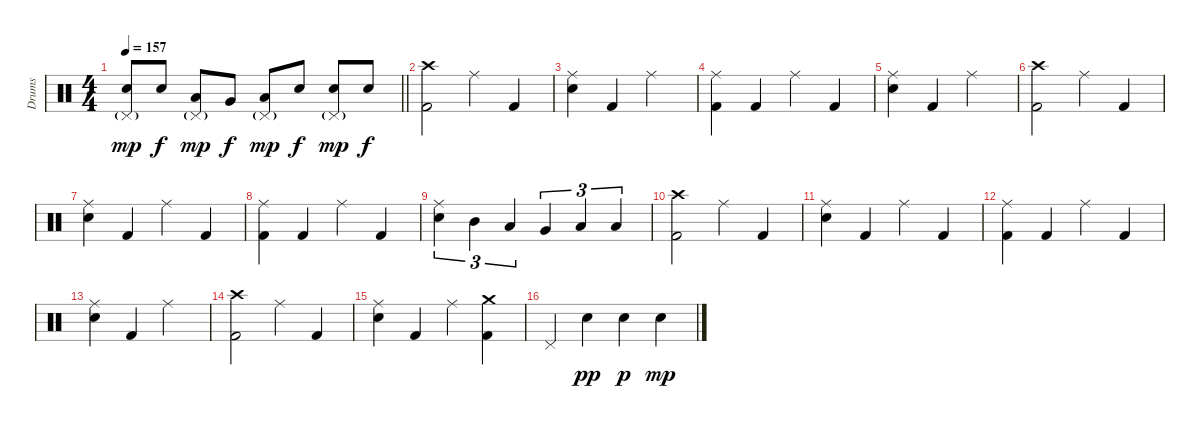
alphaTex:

\track ("Drums" "Drums") {instrument percussion}
\staff {score}
\articulation defaults
\ts (4 4)
\tempo 157
\clef neutral
\barLineRight lightlight
\ks c
("Pedal Hi-Hat (hit)"{g} "Electric Snare (hit)").8{dy mp} "Electric Snare (hit)".8{dy f} ("Pedal Hi-Hat (hit)"{g} "Low Tom (hit)").8{dy mp} "Very Low Tom (hit)".8{dy f} ("Pedal Hi-Hat (hit)"{g} "Low Floor Tom (hit)").8{dy mp} "Electric Snare (hit)".8{dy f} ("Pedal Hi-Hat (hit)"{g} "Electric Snare (hit)").8{dy mp} "Electric Snare (hit)".8{dy f} |
\section ("" "")
("Crash high (hit)" "Kick (hit) 2").2 "Ride (middle)".4 "Kick (hit) 2".4 |
("Ride (middle)" "Electric Snare (hit)").4 "Kick (hit) 2".4 "Ride (middle)".2 |
("Ride (middle)" "Kick (hit) 2").4 "Kick (hit) 2".4 "Ride (middle)".4 "Kick (hit) 2".4 |
("Ride (middle)" "Electric Snare (hit)").4 "Kick (hit) 2".4 "Ride (middle)".2 |
("Crash high (hit)" "Kick (hit) 2").2 "Ride (middle)".4 "Kick (hit) 2".4 |
("Ride (middle)" "Electric Snare (hit)").4 "Kick (hit) 2".4 "Ride (middle)".4 "Kick (hit) 2".4 |
("Ride (middle)" "Kick (hit) 2").4 "Kick (hit) 2".4 "Ride (middle)".4 "Kick (hit) 2".4 |
("Ride (middle)" "Electric Snare (hit)").4{tu (3 2)} "Mid Tom (hit)".4{tu (3 2)} "Low Tom (hit)".4{tu (3 2)} "Very Low Tom (hit)".4{tu (3 2)} "Low Floor Tom (hit)".4{tu (3 2)} "Low Floor Tom (hit)".4{tu (3 2)} |
("Crash high (hit)" "Kick (hit) 2").2 "Ride (middle)".4 "Kick (hit) 2".4 |
("Ride (middle)" "Electric Snare (hit)").4 "Kick (hit) 2".4 "Ride (middle)".4 "Kick (hit) 2".4 |
("Ride (middle)" "Kick (hit) 2").4 "Kick (hit) 2".4 "Ride (middle)".4 "Kick (hit) 2".4 |
("Ride (middle)" "Electric Snare (hit)").4 "Kick (hit) 2".4 "Ride (middle)".2 |
("Crash high (hit)" "Kick (hit) 2").2 "Ride (middle)".4 "Kick (hit) 2".4 |
("Ride (middle)" "Electric Snare (hit)").4 "Kick (hit) 2".4 "Ride (middle)".4 ("Crash medium (hit)" "Kick (hit) 2").4 |
"Pedal Hi-Hat (hit)".4 "Electric Snare (hit)".4{dy pp} "Electric Snare (hit)".4{dy p} "Electric Snare (hit)".4{dy mp}
